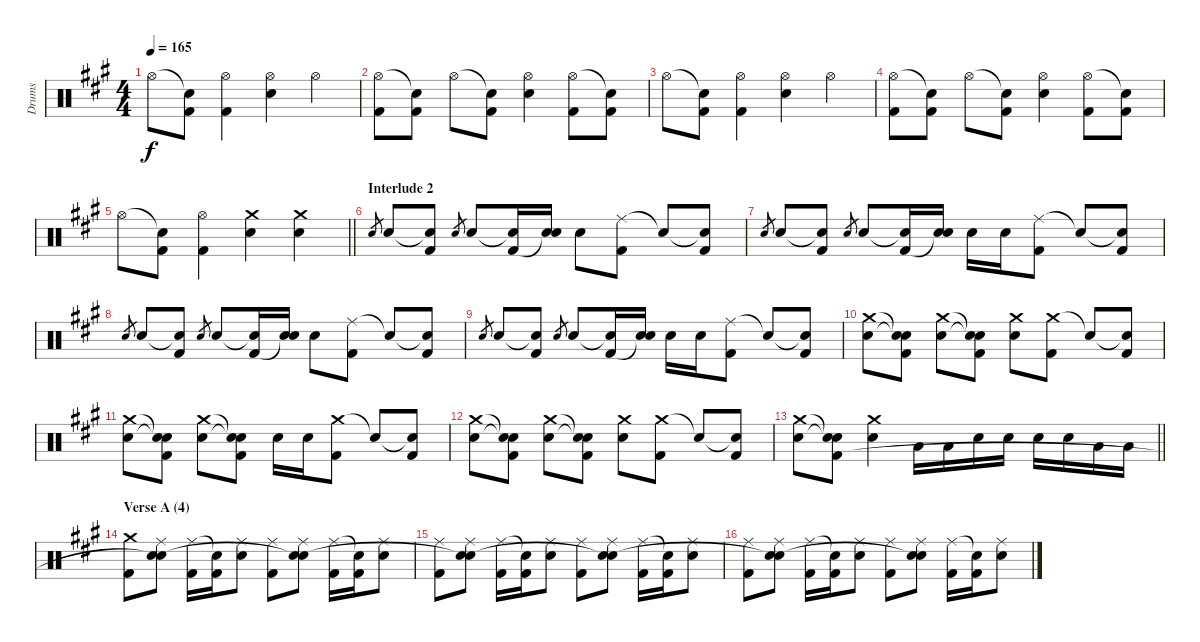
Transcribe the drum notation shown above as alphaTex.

\track ("Drums" "Drums") {instrument percussion}
\staff {score}
\articulation defaults
\ts (4 4)
\tempo 165
\clef neutral
\ks f#minor "Hi-Hat (open)".8{dy f}
("Snare (hit)"{t} "Kick (hit) 2").8 ("Hi-Hat (open)" "Kick (hit) 2").4 ("Hi-Hat (open)" "Electric Snare (hit)").4 "Hi-Hat (open)".4 |
("Hi-Hat (open)" "Kick (hit) 2").8 ("Snare (hit)"{t} "Kick (hit) 2").8 "Hi-Hat (open)".8 ("Snare (hit)"{t} "Kick (hit) 2").8 ("Hi-Hat (open)" "Electric Snare (hit)").4 ("Hi-Hat (open)" "Kick (hit) 2").8 ("Snare (hit)"{t} "Kick (hit) 2").8 |
"Hi-Hat (open)".8 ("Snare (hit)"{t} "Kick (hit) 2").8 ("Hi-Hat (open)" "Kick (hit) 2").4 ("Hi-Hat (open)" "Electric Snare (hit)").4 "Hi-Hat (open)".4 |
("Hi-Hat (open)" "Kick (hit) 2").8 ("Snare (hit)"{t} "Kick (hit) 2").8 "Hi-Hat (open)".8 ("Snare (hit)"{t} "Kick (hit) 2").8 ("Hi-Hat (open)" "Electric Snare (hit)").4 ("Hi-Hat (open)" "Kick (hit) 2").8 ("Snare (hit)"{t} "Kick (hit) 2").8 |
\barLineRight lightlight "Hi-Hat (open)".8
("Snare (hit)"{t} "Kick (hit) 2").8 ("Hi-Hat (open)" "Kick (hit) 2").4 ("Crash medium (hit)" "Electric Snare (hit)").4 ("Crash medium (hit)" "Electric Snare (hit)").4 |
\section ("" "Interlude 2")
"Electric Snare (hit)".8{gr} "Electric Snare (hit)".8 ("Snare (hit)"{t} "Kick (hit) 2").8 "Electric Snare (hit)".8{gr} "Electric Snare (hit)".8 ("Snare (hit)"{t} "Kick (hit) 2").16 ("Electric Snare (hit)" "Snare (hit)"{t}).16 "Electric Snare (hit)".8 ("Ride (middle)" "Kick (hit) 2").8 "Snare (hit)"{t}.8 ("Snare (hit)"{t} "Kick (hit) 2").8 |
"Electric Snare (hit)".8{gr} "Electric Snare (hit)".8 ("Snare (hit)"{t} "Kick (hit) 2").8 "Electric Snare (hit)".8{gr} "Electric Snare (hit)".8 ("Snare (hit)"{t} "Kick (hit) 2").16 ("Electric Snare (hit)" "Snare (hit)"{t}).16 "Electric Snare (hit)".16 "Electric Snare (hit)".16 ("Ride (middle)" "Kick (hit) 2").8 "Snare (hit)"{t}.8 ("Snare (hit)"{t} "Kick (hit) 2").8 |
"Electric Snare (hit)".8{gr} "Electric Snare (hit)".8 ("Snare (hit)"{t} "Kick (hit) 2").8 "Electric Snare (hit)".8{gr} "Electric Snare (hit)".8 ("Snare (hit)"{t} "Kick (hit) 2").16 ("Electric Snare (hit)" "Snare (hit)"{t}).16 "Electric Snare (hit)".8 ("Ride (middle)" "Kick (hit) 2").8 "Snare (hit)"{t}.8 ("Snare (hit)"{t} "Kick (hit) 2").8 |
"Electric Snare (hit)".8{gr} "Electric Snare (hit)".8 ("Snare (hit)"{t} "Kick (hit) 2").8 "Electric Snare (hit)".8{gr} "Electric Snare (hit)".8 ("Snare (hit)"{t} "Kick (hit) 2").16 ("Electric Snare (hit)" "Snare (hit)"{t}).16 "Electric Snare (hit)".16 "Electric Snare (hit)".16 ("Ride (middle)" "Kick (hit) 2").8 "Snare (hit)"{t}.8 ("Snare (hit)"{t} "Kick (hit) 2").8 |
("Crash medium (hit)" "Electric Snare (hit)").8 ("Snare (hit)"{t} "Snare (hit)"{t} "Kick (hit) 2").8 ("Crash medium (hit)" "Electric Snare (hit)").8 ("Snare (hit)"{t} "Snare (hit)"{t} "Kick (hit) 2").8 ("Crash medium (hit)" "Electric Snare (hit)").8 ("Crash medium (hit)" "Kick (hit) 2").8 "Snare (hit)"{t}.8 ("Snare (hit)"{t} "Kick (hit) 2").8 |
("Crash medium (hit)" "Electric Snare (hit)").8 ("Snare (hit)"{t} "Snare (hit)"{t} "Kick (hit) 2").8 ("Crash medium (hit)" "Electric Snare (hit)").8 ("Snare (hit)"{t} "Snare (hit)"{t} "Kick (hit) 2").8 "Electric Snare (hit)".16 "Electric Snare (hit)".16 ("Crash medium (hit)" "Kick (hit) 2").8 "Snare (hit)"{t}.8 ("Snare (hit)"{t} "Kick (hit) 2").8 |
("Crash medium (hit)" "Electric Snare (hit)").8 ("Snare (hit)"{t} "Snare (hit)"{t} "Kick (hit) 2").8 ("Crash medium (hit)" "Electric Snare (hit)").8 ("Snare (hit)"{t} "Snare (hit)"{t} "Kick (hit) 2").8 ("Crash medium (hit)" "Electric Snare (hit)").8 ("Crash medium (hit)" "Kick (hit) 2").8 "Snare (hit)"{t}.8 ("Snare (hit)"{t} "Kick (hit) 2").8 |
\barLineRight lightlight
("Crash medium (hit)" "Electric Snare (hit)").8 ("Snare (hit)"{t} "Snare (hit)"{t} "Kick (hit) 2").8 ("Crash medium (hit)" "Electric Snare (hit)").4 "Low Floor Tom (hit)".16 "Low Floor Tom (hit)".16 "Electric Snare (hit)".16 "Electric Snare (hit)".16 "Electric Snare (hit)".16 "Electric Snare (hit)".16 "Low Tom (hit)".16 "Low Tom (hit)".16 |
\section ("" "Verse A (4)")
("Crash medium (hit)" "Kick (hit) 2").8 ("Ride (middle)" "Electric Snare (hit)" "Snare (hit)"{t}).8 ("Ride (middle)" "Kick (hit) 2").16 ("Snare (hit)"{t} "Kick (hit) 2").16 ("Ride (middle)" "Electric Snare (hit)").8 ("Ride (middle)" "Kick (hit) 2").8 ("Ride (middle)" "Electric Snare (hit)" "Snare (hit)"{t}).8 ("Ride (middle)" "Kick (hit) 2").16 ("Snare (hit)"{t} "Kick (hit) 2").16 ("Ride (middle)" "Electric Snare (hit)").8 |
("Ride (middle)" "Kick (hit) 2").8 ("Ride (middle)" "Electric Snare (hit)" "Snare (hit)"{t}).8 ("Ride (middle)" "Kick (hit) 2").16 ("Snare (hit)"{t} "Kick (hit) 2").16 ("Ride (middle)" "Electric Snare (hit)").8 ("Ride (middle)" "Kick (hit) 2").8 ("Ride (middle)" "Electric Snare (hit)" "Snare (hit)"{t}).8 ("Ride (middle)" "Kick (hit) 2").16 ("Snare (hit)"{t} "Kick (hit) 2").16 ("Ride (middle)" "Electric Snare (hit)").8 |
("Ride (middle)" "Kick (hit) 2").8 ("Ride (middle)" "Electric Snare (hit)" "Snare (hit)"{t}).8 ("Ride (middle)" "Kick (hit) 2").16 ("Snare (hit)"{t} "Kick (hit) 2").16 ("Ride (middle)" "Electric Snare (hit)").8 ("Ride (middle)" "Kick (hit) 2").8 ("Ride (middle)" "Electric Snare (hit)" "Snare (hit)"{t}).8 ("Ride (middle)" "Kick (hit) 2").16 ("Snare (hit)"{t} "Kick (hit) 2").16 ("Ride (middle)" "Electric Snare (hit)").8
